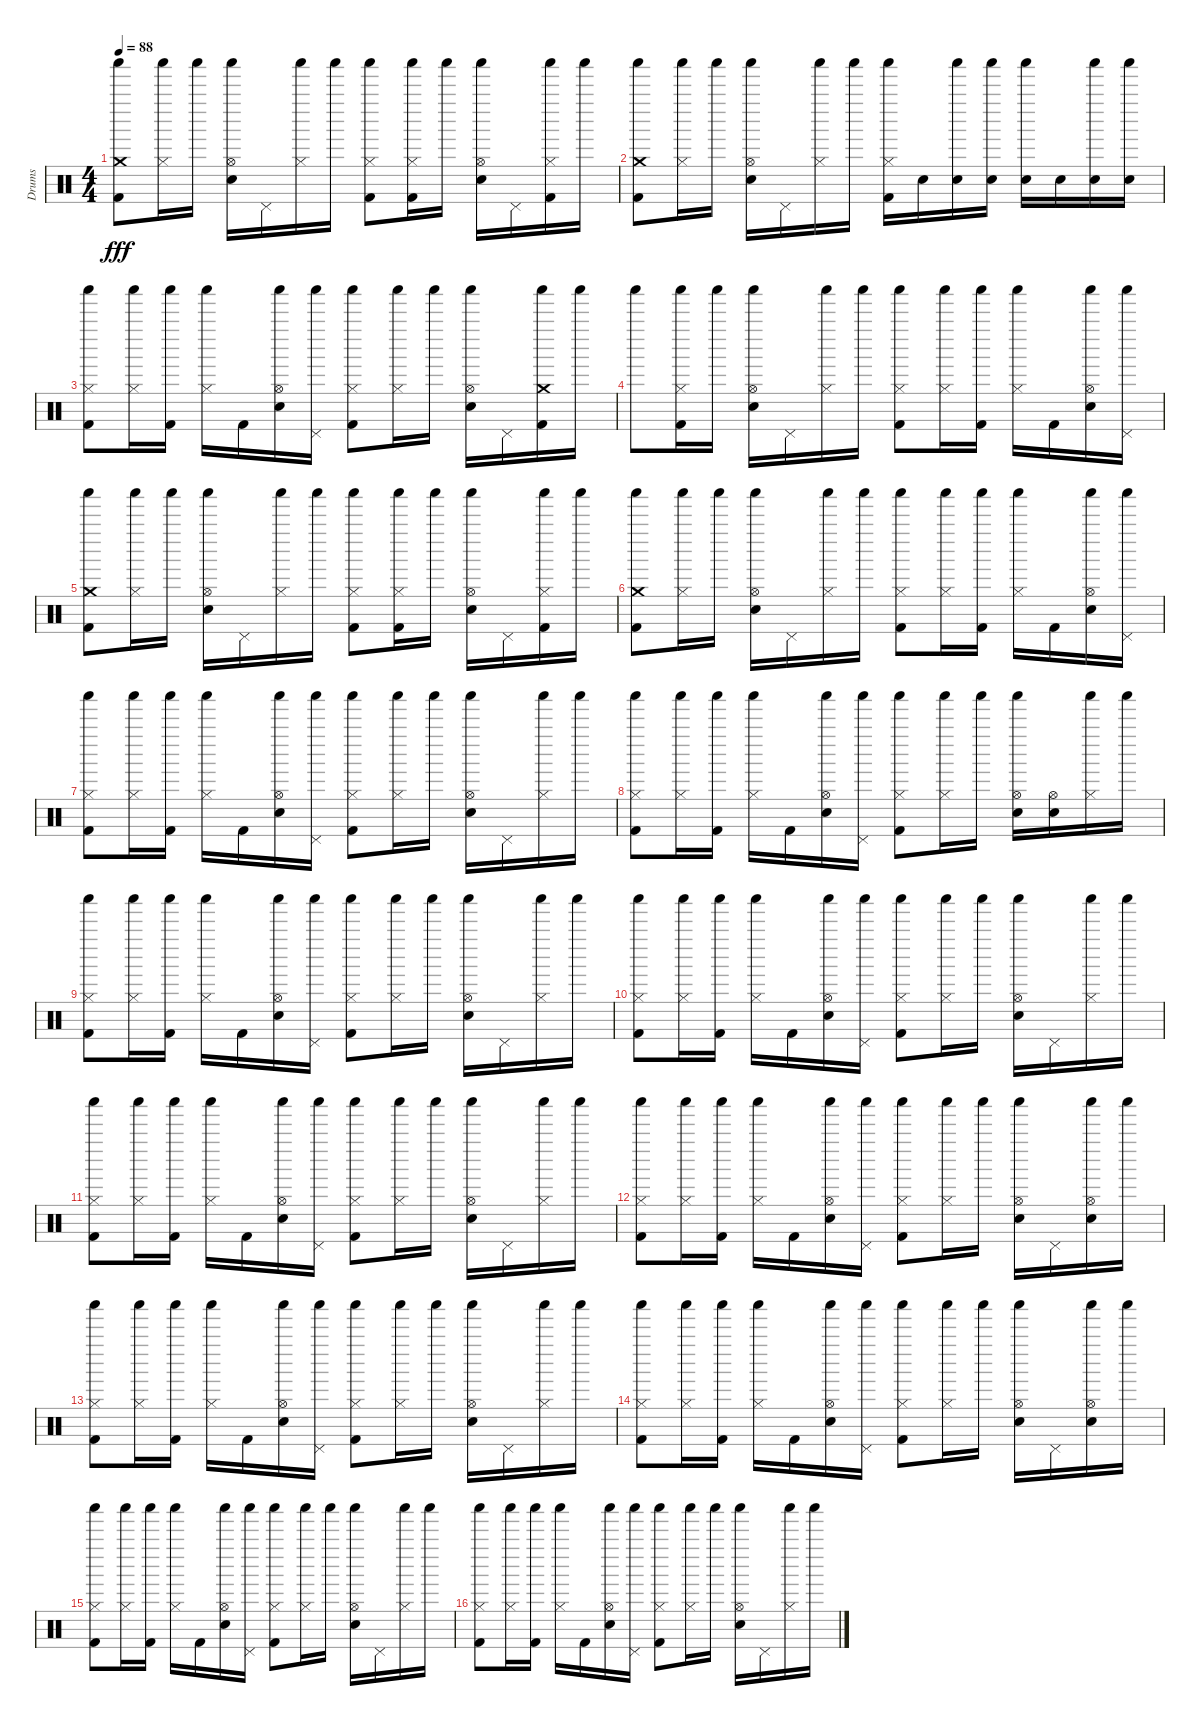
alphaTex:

\track ("Drums" "Drums") {instrument percussion}
\staff {score}
\articulation defaults
\ts (4 4)
\tempo 88
\clef neutral
\ks c
("Crash medium (hit)" "Shaker (hit)" "Kick (hit) 2").8{dy fff} ("Hi-Hat (closed)" "Shaker (hit)").16 "Shaker (hit)".16 ("Hi-Hat (open)" "Shaker (hit)" "Snare (hit) 2").16 "Pedal Hi-Hat (hit)".16 ("Hi-Hat (closed)" "Shaker (hit)").16 "Shaker (hit)".16 ("Hi-Hat (closed)" "Shaker (hit)" "Kick (hit) 2").8 ("Hi-Hat (closed)" "Shaker (hit)" "Kick (hit) 2").16 "Shaker (hit)".16 ("Hi-Hat (open)" "Shaker (hit)" "Snare (hit) 2").16 "Pedal Hi-Hat (hit)".16 ("Hi-Hat (closed)" "Shaker (hit)" "Kick (hit) 2").16 "Shaker (hit)".16 |
("Crash medium (hit)" "Shaker (hit)" "Kick (hit) 2").8 ("Hi-Hat (closed)" "Shaker (hit)").16 "Shaker (hit)".16 ("Hi-Hat (open)" "Shaker (hit)" "Snare (hit) 2").16 "Pedal Hi-Hat (hit)".16 ("Hi-Hat (closed)" "Shaker (hit)").16 "Shaker (hit)".16 ("Hi-Hat (closed)" "Shaker (hit)" "Kick (hit) 2").16 "Snare (hit) 2".16 ("Shaker (hit)" "Snare (hit) 2").16 ("Shaker (hit)" "Snare (hit) 2").16 ("Shaker (hit)" "Snare (hit) 2").16 "Snare (hit) 2".16 ("Shaker (hit)" "Snare (hit) 2").16 ("Shaker (hit)" "Snare (hit) 2").16 |
("Hi-Hat (closed)" "Shaker (hit)" "Kick (hit) 2").8 ("Hi-Hat (closed)" "Shaker (hit)").16 ("Shaker (hit)" "Kick (hit) 2").16 ("Hi-Hat (closed)" "Shaker (hit)").16 "Kick (hit) 2".16 ("Hi-Hat (open)" "Shaker (hit)" "Snare (hit) 2").16 ("Pedal Hi-Hat (hit)" "Shaker (hit)").16 ("Hi-Hat (closed)" "Shaker (hit)" "Kick (hit) 2").8 ("Hi-Hat (closed)" "Shaker (hit)").16 "Shaker (hit)".16 ("Hi-Hat (open)" "Shaker (hit)" "Snare (hit) 2").16 "Pedal Hi-Hat (hit)".16 ("Crash medium (hit)" "Shaker (hit)" "Kick (hit) 2").16 "Shaker (hit)".16 |
"Shaker (hit)".8 ("Hi-Hat (closed)" "Shaker (hit)" "Kick (hit) 2").16 "Shaker (hit)".16 ("Hi-Hat (open)" "Shaker (hit)" "Snare (hit) 2").16 "Pedal Hi-Hat (hit)".16 ("Hi-Hat (closed)" "Shaker (hit)").16 "Shaker (hit)".16 ("Hi-Hat (closed)" "Shaker (hit)" "Kick (hit) 2").8 ("Hi-Hat (closed)" "Shaker (hit)").16 ("Shaker (hit)" "Kick (hit) 2").16 ("Hi-Hat (closed)" "Shaker (hit)").16 "Kick (hit) 2".16 ("Hi-Hat (open)" "Shaker (hit)" "Snare (hit) 2").16 ("Pedal Hi-Hat (hit)" "Shaker (hit)").16 |
("Crash medium (hit)" "Shaker (hit)" "Kick (hit) 2").8 ("Hi-Hat (closed)" "Shaker (hit)").16 "Shaker (hit)".16 ("Hi-Hat (open)" "Shaker (hit)" "Snare (hit) 2").16 "Pedal Hi-Hat (hit)".16 ("Hi-Hat (closed)" "Shaker (hit)").16 "Shaker (hit)".16 ("Hi-Hat (closed)" "Shaker (hit)" "Kick (hit) 2").8 ("Hi-Hat (closed)" "Shaker (hit)" "Kick (hit) 2").16 "Shaker (hit)".16 ("Hi-Hat (open)" "Shaker (hit)" "Snare (hit) 2").16 "Pedal Hi-Hat (hit)".16 ("Hi-Hat (closed)" "Shaker (hit)" "Kick (hit) 2").16 "Shaker (hit)".16 |
("Crash medium (hit)" "Shaker (hit)" "Kick (hit) 2").8 ("Hi-Hat (closed)" "Shaker (hit)").16 "Shaker (hit)".16 ("Hi-Hat (open)" "Shaker (hit)" "Snare (hit) 2").16 "Pedal Hi-Hat (hit)".16 ("Hi-Hat (closed)" "Shaker (hit)").16 "Shaker (hit)".16 ("Hi-Hat (closed)" "Shaker (hit)" "Kick (hit) 2").8 ("Hi-Hat (closed)" "Shaker (hit)").16 ("Shaker (hit)" "Kick (hit) 2").16 ("Hi-Hat (closed)" "Shaker (hit)").16 "Kick (hit) 2".16 ("Hi-Hat (open)" "Shaker (hit)" "Snare (hit) 2").16 ("Pedal Hi-Hat (hit)" "Shaker (hit)").16 |
("Hi-Hat (closed)" "Shaker (hit)" "Kick (hit) 2").8 ("Hi-Hat (closed)" "Shaker (hit)").16 ("Shaker (hit)" "Kick (hit) 2").16 ("Hi-Hat (closed)" "Shaker (hit)").16 "Kick (hit) 2".16 ("Hi-Hat (open)" "Shaker (hit)" "Snare (hit) 2").16 ("Pedal Hi-Hat (hit)" "Shaker (hit)").16 ("Hi-Hat (closed)" "Shaker (hit)" "Kick (hit) 2").8 ("Hi-Hat (closed)" "Shaker (hit)").16 "Shaker (hit)".16 ("Hi-Hat (open)" "Shaker (hit)" "Snare (hit) 2").16 "Pedal Hi-Hat (hit)".16 ("Hi-Hat (closed)" "Shaker (hit)").16 "Shaker (hit)".16 |
("Hi-Hat (closed)" "Shaker (hit)" "Kick (hit) 2").8 ("Hi-Hat (closed)" "Shaker (hit)").16 ("Shaker (hit)" "Kick (hit) 2").16 ("Hi-Hat (closed)" "Shaker (hit)").16 "Kick (hit) 2".16 ("Hi-Hat (open)" "Shaker (hit)" "Snare (hit) 2").16 ("Pedal Hi-Hat (hit)" "Shaker (hit)").16 ("Hi-Hat (closed)" "Shaker (hit)" "Kick (hit) 2").8 ("Hi-Hat (closed)" "Shaker (hit)").16 "Shaker (hit)".16 ("Hi-Hat (open)" "Shaker (hit)" "Snare (hit) 2").16 ("Hi-Hat (open)" "Snare (hit) 2").16 ("Hi-Hat (closed)" "Shaker (hit)").16 "Shaker (hit)".16 |
("Hi-Hat (closed)" "Shaker (hit)" "Kick (hit) 2").8 ("Hi-Hat (closed)" "Shaker (hit)").16 ("Shaker (hit)" "Kick (hit) 2").16 ("Hi-Hat (closed)" "Shaker (hit)").16 "Kick (hit) 2".16 ("Hi-Hat (open)" "Shaker (hit)" "Snare (hit) 2").16 ("Pedal Hi-Hat (hit)" "Shaker (hit)").16 ("Hi-Hat (closed)" "Shaker (hit)" "Kick (hit) 2").8 ("Hi-Hat (closed)" "Shaker (hit)").16 "Shaker (hit)".16 ("Hi-Hat (open)" "Shaker (hit)" "Snare (hit) 2").16 "Pedal Hi-Hat (hit)".16 ("Hi-Hat (closed)" "Shaker (hit)").16 "Shaker (hit)".16 |
("Hi-Hat (closed)" "Shaker (hit)" "Kick (hit) 2").8 ("Hi-Hat (closed)" "Shaker (hit)").16 ("Shaker (hit)" "Kick (hit) 2").16 ("Hi-Hat (closed)" "Shaker (hit)").16 "Kick (hit) 2".16 ("Hi-Hat (open)" "Shaker (hit)" "Snare (hit) 2").16 ("Pedal Hi-Hat (hit)" "Shaker (hit)").16 ("Hi-Hat (closed)" "Shaker (hit)" "Kick (hit) 2").8 ("Hi-Hat (closed)" "Shaker (hit)").16 "Shaker (hit)".16 ("Hi-Hat (open)" "Shaker (hit)" "Snare (hit) 2").16 "Pedal Hi-Hat (hit)".16 ("Hi-Hat (closed)" "Shaker (hit)").16 "Shaker (hit)".16 |
("Hi-Hat (closed)" "Shaker (hit)" "Kick (hit) 2").8 ("Hi-Hat (closed)" "Shaker (hit)").16 ("Shaker (hit)" "Kick (hit) 2").16 ("Hi-Hat (closed)" "Shaker (hit)").16 "Kick (hit) 2".16 ("Hi-Hat (open)" "Shaker (hit)" "Snare (hit) 2").16 ("Pedal Hi-Hat (hit)" "Shaker (hit)").16 ("Hi-Hat (closed)" "Shaker (hit)" "Kick (hit) 2").8 ("Hi-Hat (closed)" "Shaker (hit)").16 "Shaker (hit)".16 ("Hi-Hat (open)" "Shaker (hit)" "Snare (hit) 2").16 "Pedal Hi-Hat (hit)".16 ("Hi-Hat (closed)" "Shaker (hit)").16 "Shaker (hit)".16 |
("Hi-Hat (closed)" "Shaker (hit)" "Kick (hit) 2").8 ("Hi-Hat (closed)" "Shaker (hit)").16 ("Shaker (hit)" "Kick (hit) 2").16 ("Hi-Hat (closed)" "Shaker (hit)").16 "Kick (hit) 2".16 ("Hi-Hat (open)" "Shaker (hit)" "Snare (hit) 2").16 ("Pedal Hi-Hat (hit)" "Shaker (hit)").16 ("Hi-Hat (closed)" "Shaker (hit)" "Kick (hit) 2").8 ("Hi-Hat (closed)" "Shaker (hit)").16 "Shaker (hit)".16 ("Hi-Hat (open)" "Shaker (hit)" "Snare (hit) 2").16 "Pedal Hi-Hat (hit)".16 ("Hi-Hat (open)" "Shaker (hit)" "Snare (hit) 2").16 "Shaker (hit)".16 |
("Hi-Hat (closed)" "Shaker (hit)" "Kick (hit) 2").8 ("Hi-Hat (closed)" "Shaker (hit)").16 ("Shaker (hit)" "Kick (hit) 2").16 ("Hi-Hat (closed)" "Shaker (hit)").16 "Kick (hit) 2".16 ("Hi-Hat (open)" "Shaker (hit)" "Snare (hit) 2").16 ("Pedal Hi-Hat (hit)" "Shaker (hit)").16 ("Hi-Hat (closed)" "Shaker (hit)" "Kick (hit) 2").8 ("Hi-Hat (closed)" "Shaker (hit)").16 "Shaker (hit)".16 ("Hi-Hat (open)" "Shaker (hit)" "Snare (hit) 2").16 "Pedal Hi-Hat (hit)".16 ("Hi-Hat (closed)" "Shaker (hit)").16 "Shaker (hit)".16 |
("Hi-Hat (closed)" "Shaker (hit)" "Kick (hit) 2").8 ("Hi-Hat (closed)" "Shaker (hit)").16 ("Shaker (hit)" "Kick (hit) 2").16 ("Hi-Hat (closed)" "Shaker (hit)").16 "Kick (hit) 2".16 ("Hi-Hat (open)" "Shaker (hit)" "Snare (hit) 2").16 ("Pedal Hi-Hat (hit)" "Shaker (hit)").16 ("Hi-Hat (closed)" "Shaker (hit)" "Kick (hit) 2").8 ("Hi-Hat (closed)" "Shaker (hit)").16 "Shaker (hit)".16 ("Hi-Hat (open)" "Shaker (hit)" "Snare (hit) 2").16 "Pedal Hi-Hat (hit)".16 ("Hi-Hat (open)" "Shaker (hit)" "Snare (hit) 2").16 "Shaker (hit)".16 |
("Hi-Hat (closed)" "Shaker (hit)" "Kick (hit) 2").8 ("Hi-Hat (closed)" "Shaker (hit)").16 ("Shaker (hit)" "Kick (hit) 2").16 ("Hi-Hat (closed)" "Shaker (hit)").16 "Kick (hit) 2".16 ("Hi-Hat (open)" "Shaker (hit)" "Snare (hit) 2").16 ("Pedal Hi-Hat (hit)" "Shaker (hit)").16 ("Hi-Hat (closed)" "Shaker (hit)" "Kick (hit) 2").8 ("Hi-Hat (closed)" "Shaker (hit)").16 "Shaker (hit)".16 ("Hi-Hat (open)" "Shaker (hit)" "Snare (hit) 2").16 "Pedal Hi-Hat (hit)".16 ("Hi-Hat (closed)" "Shaker (hit)").16 "Shaker (hit)".16 |
("Hi-Hat (closed)" "Shaker (hit)" "Kick (hit) 2").8 ("Hi-Hat (closed)" "Shaker (hit)").16 ("Shaker (hit)" "Kick (hit) 2").16 ("Hi-Hat (closed)" "Shaker (hit)").16 "Kick (hit) 2".16 ("Hi-Hat (open)" "Shaker (hit)" "Snare (hit) 2").16 ("Pedal Hi-Hat (hit)" "Shaker (hit)").16 ("Hi-Hat (closed)" "Shaker (hit)" "Kick (hit) 2").8 ("Hi-Hat (closed)" "Shaker (hit)").16 "Shaker (hit)".16 ("Hi-Hat (open)" "Shaker (hit)" "Snare (hit) 2").16 "Pedal Hi-Hat (hit)".16 ("Hi-Hat (closed)" "Shaker (hit)").16 "Shaker (hit)".16
